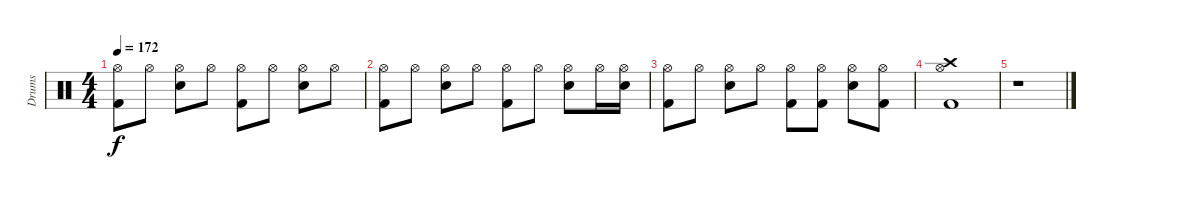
\track ("Drums" "Drums") {instrument percussion}
\staff {score}
\articulation defaults
\ts (4 4)
\tempo 172
\clef neutral
\ks c
("Hi-Hat (open)" "Kick (hit) 2").8{dy f} "Hi-Hat (open)".8 ("Hi-Hat (open)" "Snare (hit) 2").8 "Hi-Hat (open)".8 ("Hi-Hat (open)" "Kick (hit) 2").8 "Hi-Hat (open)".8 ("Hi-Hat (open)" "Snare (hit) 2").8 "Hi-Hat (open)".8 |
("Hi-Hat (open)" "Kick (hit) 2").8 "Hi-Hat (open)".8 ("Hi-Hat (open)" "Snare (hit) 2").8 "Hi-Hat (open)".8 ("Hi-Hat (open)" "Kick (hit) 2").8 "Hi-Hat (open)".8 ("Hi-Hat (open)" "Snare (hit) 2").8 "Hi-Hat (open)".16 ("Hi-Hat (open)" "Electric Snare (hit)").16 |
("Hi-Hat (open)" "Kick (hit) 2").8 "Hi-Hat (open)".8 ("Hi-Hat (open)" "Snare (hit) 2").8 "Hi-Hat (open)".8 ("Hi-Hat (open)" "Kick (hit) 2").8 ("Hi-Hat (open)" "Kick (hit) 2").8 ("Hi-Hat (open)" "Snare (hit) 2").8 ("Hi-Hat (open)" "Kick (hit) 2").8 |
("Crash high (hit)" "Hi-Hat (open)" "Kick (hit) 2").1 |
r.1
